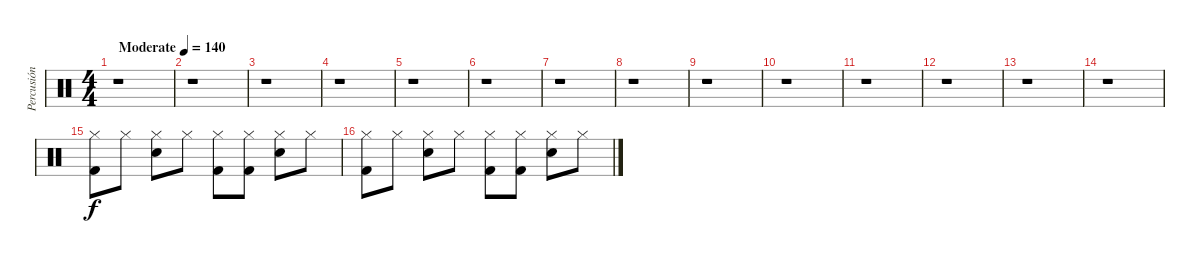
\track ("Percusión" "Percusión") {instrument percussion}
\staff {score}
\articulation defaults
\ts (4 4)
\tempo (140 "Moderate")
\clef neutral
\ks c
r.1{dy f} |
r.1 |
r.1 |
r.1 |
r.1 |
r.1 |
r.1 |
r.1 |
r.1 |
r.1 |
r.1 |
r.1 |
r.1 |
r.1 |
("Hi-Hat (closed)" "Kick (hit) 2").8 "Hi-Hat (closed)".8 ("Hi-Hat (closed)" "Snare (hit) 2").8 "Hi-Hat (closed)".8 ("Hi-Hat (closed)" "Kick (hit) 2").8 ("Hi-Hat (closed)" "Kick (hit) 2").8 ("Hi-Hat (closed)" "Snare (hit) 2").8 "Hi-Hat (closed)".8 |
("Hi-Hat (closed)" "Kick (hit) 2").8 "Hi-Hat (closed)".8 ("Hi-Hat (closed)" "Snare (hit) 2").8 "Hi-Hat (closed)".8 ("Hi-Hat (closed)" "Kick (hit) 2").8 ("Hi-Hat (closed)" "Kick (hit) 2").8 ("Hi-Hat (closed)" "Snare (hit) 2").8 "Hi-Hat (closed)".8
